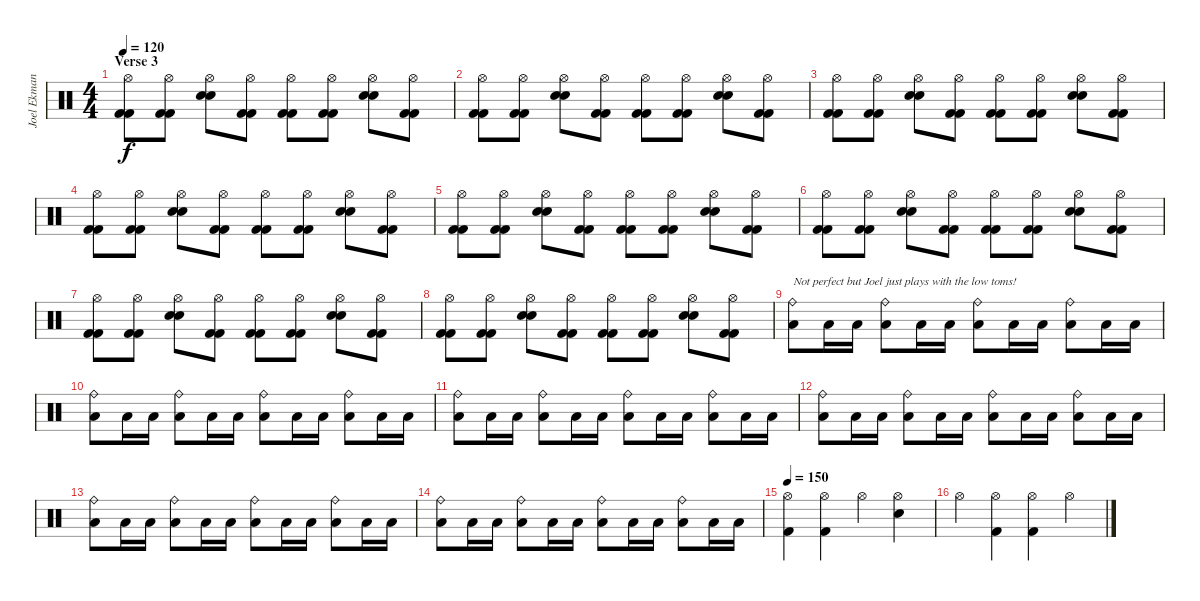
\track ("Joel Ekman" "Joel Ekman") {instrument percussion}
\staff {score}
\articulation defaults
\ts (4 4)
\section ("" "Verse 3")
\tempo 120
\clef neutral
\ks c
("Hi-Hat (open)" "Kick (hit) 2" "Kick (hit) 2").8{dy f} ("Hi-Hat (open)" "Kick (hit) 2" "Kick (hit) 2").8 ("Hi-Hat (open)" "Electric Snare (hit)" "Electric Snare (hit)").8 ("Hi-Hat (open)" "Kick (hit) 2" "Kick (hit) 2").8 ("Hi-Hat (open)" "Kick (hit) 2" "Kick (hit) 2").8 ("Hi-Hat (open)" "Kick (hit) 2" "Kick (hit) 2").8 ("Hi-Hat (open)" "Electric Snare (hit)" "Electric Snare (hit)").8 ("Hi-Hat (open)" "Kick (hit) 2" "Kick (hit) 2").8 |
("Hi-Hat (open)" "Kick (hit) 2" "Kick (hit) 2").8 ("Hi-Hat (open)" "Kick (hit) 2" "Kick (hit) 2").8 ("Hi-Hat (open)" "Electric Snare (hit)" "Electric Snare (hit)").8 ("Hi-Hat (open)" "Kick (hit) 2" "Kick (hit) 2").8 ("Hi-Hat (open)" "Kick (hit) 2" "Kick (hit) 2").8 ("Hi-Hat (open)" "Kick (hit) 2" "Kick (hit) 2").8 ("Hi-Hat (open)" "Electric Snare (hit)" "Electric Snare (hit)").8 ("Hi-Hat (open)" "Kick (hit) 2" "Kick (hit) 2").8 |
("Hi-Hat (open)" "Kick (hit) 2" "Kick (hit) 2").8 ("Hi-Hat (open)" "Kick (hit) 2" "Kick (hit) 2").8 ("Hi-Hat (open)" "Electric Snare (hit)" "Electric Snare (hit)").8 ("Hi-Hat (open)" "Kick (hit) 2" "Kick (hit) 2").8 ("Hi-Hat (open)" "Kick (hit) 2" "Kick (hit) 2").8 ("Hi-Hat (open)" "Kick (hit) 2" "Kick (hit) 2").8 ("Hi-Hat (open)" "Electric Snare (hit)" "Electric Snare (hit)").8 ("Hi-Hat (open)" "Kick (hit) 2" "Kick (hit) 2").8 |
("Hi-Hat (open)" "Kick (hit) 2" "Kick (hit) 2").8 ("Hi-Hat (open)" "Kick (hit) 2" "Kick (hit) 2").8 ("Hi-Hat (open)" "Electric Snare (hit)" "Electric Snare (hit)").8 ("Hi-Hat (open)" "Kick (hit) 2" "Kick (hit) 2").8 ("Hi-Hat (open)" "Kick (hit) 2" "Kick (hit) 2").8 ("Hi-Hat (open)" "Kick (hit) 2" "Kick (hit) 2").8 ("Hi-Hat (open)" "Electric Snare (hit)" "Electric Snare (hit)").8 ("Hi-Hat (open)" "Kick (hit) 2" "Kick (hit) 2").8 |
("Hi-Hat (open)" "Kick (hit) 2" "Kick (hit) 2").8 ("Hi-Hat (open)" "Kick (hit) 2" "Kick (hit) 2").8 ("Hi-Hat (open)" "Electric Snare (hit)" "Electric Snare (hit)").8 ("Hi-Hat (open)" "Kick (hit) 2" "Kick (hit) 2").8 ("Hi-Hat (open)" "Kick (hit) 2" "Kick (hit) 2").8 ("Hi-Hat (open)" "Kick (hit) 2" "Kick (hit) 2").8 ("Hi-Hat (open)" "Electric Snare (hit)" "Electric Snare (hit)").8 ("Hi-Hat (open)" "Kick (hit) 2" "Kick (hit) 2").8 |
("Hi-Hat (open)" "Kick (hit) 2" "Kick (hit) 2").8 ("Hi-Hat (open)" "Kick (hit) 2" "Kick (hit) 2").8 ("Hi-Hat (open)" "Electric Snare (hit)" "Electric Snare (hit)").8 ("Hi-Hat (open)" "Kick (hit) 2" "Kick (hit) 2").8 ("Hi-Hat (open)" "Kick (hit) 2" "Kick (hit) 2").8 ("Hi-Hat (open)" "Kick (hit) 2" "Kick (hit) 2").8 ("Hi-Hat (open)" "Electric Snare (hit)" "Electric Snare (hit)").8 ("Hi-Hat (open)" "Kick (hit) 2" "Kick (hit) 2").8 |
("Hi-Hat (open)" "Kick (hit) 2" "Kick (hit) 2").8 ("Hi-Hat (open)" "Kick (hit) 2" "Kick (hit) 2").8 ("Hi-Hat (open)" "Electric Snare (hit)" "Electric Snare (hit)").8 ("Hi-Hat (open)" "Kick (hit) 2" "Kick (hit) 2").8 ("Hi-Hat (open)" "Kick (hit) 2" "Kick (hit) 2").8 ("Hi-Hat (open)" "Kick (hit) 2" "Kick (hit) 2").8 ("Hi-Hat (open)" "Electric Snare (hit)" "Electric Snare (hit)").8 ("Hi-Hat (open)" "Kick (hit) 2" "Kick (hit) 2").8 |
("Hi-Hat (open)" "Kick (hit) 2" "Kick (hit) 2").8 ("Hi-Hat (open)" "Kick (hit) 2" "Kick (hit) 2").8 ("Hi-Hat (open)" "Electric Snare (hit)" "Electric Snare (hit)").8 ("Hi-Hat (open)" "Kick (hit) 2" "Kick (hit) 2").8 ("Hi-Hat (open)" "Kick (hit) 2" "Kick (hit) 2").8 ("Hi-Hat (open)" "Kick (hit) 2" "Kick (hit) 2").8 ("Hi-Hat (open)" "Electric Snare (hit)" "Electric Snare (hit)").8 ("Hi-Hat (open)" "Kick (hit) 2" "Kick (hit) 2").8 |
("Low Floor Tom (hit)" "Ride (bell)").8{txt "Not perfect but Joel just plays with the low toms!"} "Low Tom (hit)".16 "Low Tom (hit)".16 ("Low Floor Tom (hit)" "Ride (bell)").8 "Low Tom (hit)".16 "Low Tom (hit)".16 ("Low Floor Tom (hit)" "Ride (bell)").8 "Low Tom (hit)".16 "Low Tom (hit)".16 ("Low Floor Tom (hit)" "Ride (bell)").8 "Low Tom (hit)".16 "Low Tom (hit)".16 |
("Low Floor Tom (hit)" "Ride (bell)").8 "Low Tom (hit)".16 "Low Tom (hit)".16 ("Low Floor Tom (hit)" "Ride (bell)").8 "Low Tom (hit)".16 "Low Tom (hit)".16 ("Low Floor Tom (hit)" "Ride (bell)").8 "Low Tom (hit)".16 "Low Tom (hit)".16 ("Low Floor Tom (hit)" "Ride (bell)").8 "Low Tom (hit)".16 "Low Tom (hit)".16 |
("Low Floor Tom (hit)" "Ride (bell)").8 "Low Tom (hit)".16 "Low Tom (hit)".16 ("Low Floor Tom (hit)" "Ride (bell)").8 "Low Tom (hit)".16 "Low Tom (hit)".16 ("Low Floor Tom (hit)" "Ride (bell)").8 "Low Tom (hit)".16 "Low Tom (hit)".16 ("Low Floor Tom (hit)" "Ride (bell)").8 "Low Tom (hit)".16 "Low Tom (hit)".16 |
("Low Floor Tom (hit)" "Ride (bell)").8 "Low Tom (hit)".16 "Low Tom (hit)".16 ("Low Floor Tom (hit)" "Ride (bell)").8 "Low Tom (hit)".16 "Low Tom (hit)".16 ("Low Floor Tom (hit)" "Ride (bell)").8 "Low Tom (hit)".16 "Low Tom (hit)".16 ("Low Floor Tom (hit)" "Ride (bell)").8 "Low Tom (hit)".16 "Low Tom (hit)".16 |
("Low Floor Tom (hit)" "Ride (bell)").8 "Low Tom (hit)".16 "Low Tom (hit)".16 ("Low Floor Tom (hit)" "Ride (bell)").8 "Low Tom (hit)".16 "Low Tom (hit)".16 ("Low Floor Tom (hit)" "Ride (bell)").8 "Low Tom (hit)".16 "Low Tom (hit)".16 ("Low Floor Tom (hit)" "Ride (bell)").8 "Low Tom (hit)".16 "Low Tom (hit)".16 |
("Low Floor Tom (hit)" "Ride (bell)").8 "Low Tom (hit)".16 "Low Tom (hit)".16 ("Low Floor Tom (hit)" "Ride (bell)").8 "Low Tom (hit)".16 "Low Tom (hit)".16 ("Low Floor Tom (hit)" "Ride (bell)").8 "Low Tom (hit)".16 "Low Tom (hit)".16 ("Low Floor Tom (hit)" "Ride (bell)").8 "Low Tom (hit)".16 "Low Tom (hit)".16 |
\tempo 150
("Hi-Hat (open)" "Kick (hit) 2").4 ("Hi-Hat (open)" "Kick (hit) 2").4 "Hi-Hat (open)".4 ("Hi-Hat (open)" "Electric Snare (hit)").4 |
"Hi-Hat (open)".4 ("Hi-Hat (open)" "Kick (hit) 2").4 ("Hi-Hat (open)" "Kick (hit) 2").4 "Hi-Hat (open)".4
